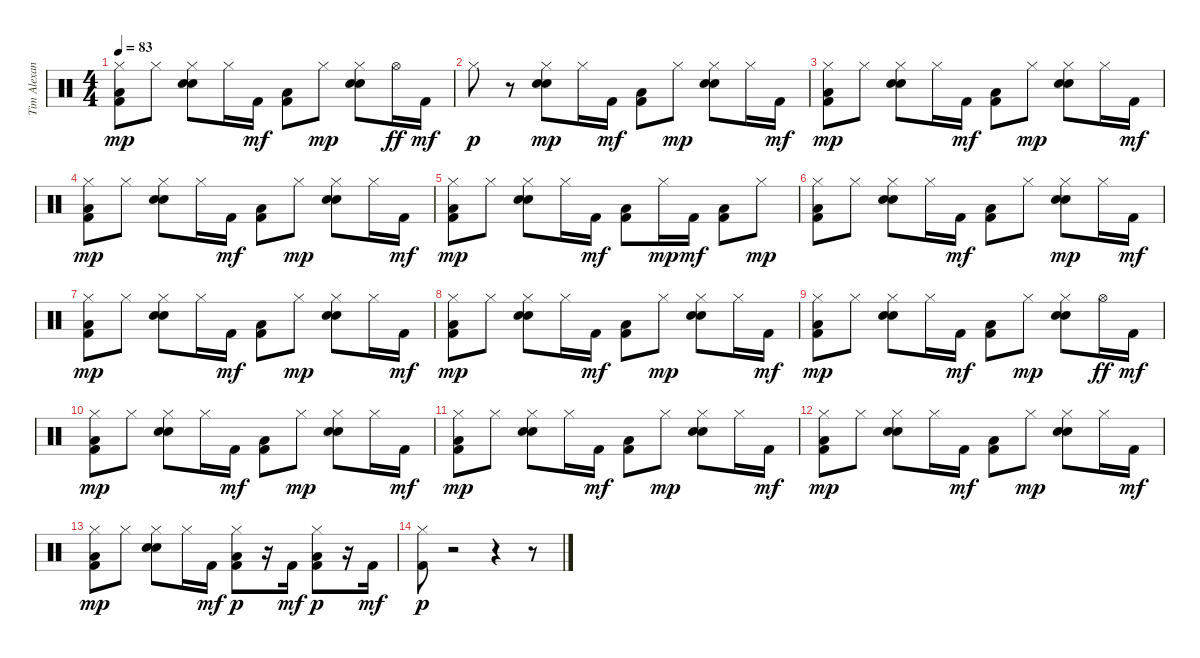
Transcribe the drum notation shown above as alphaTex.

\track ("Tim Alexander" "Tim Alexan") {instrument percussion}
\staff {score}
\articulation defaults
\ts (4 4)
\tempo 83
\clef neutral
\ks c
("Kick (hit) 2" "Low Floor Tom (hit)" "Hi-Hat (closed)").8{dy mp} "Hi-Hat (closed)".8 ("Hand Clap (hit)" "Electric Snare (hit)" "Hi-Hat (closed)").8 "Hi-Hat (closed)".16 "Kick (hit) 2".16{dy mf} ("Kick (hit) 2" "Low Floor Tom (hit)").8 "Hi-Hat (closed)".8{dy mp} ("Hand Clap (hit)" "Electric Snare (hit)" "Hi-Hat (closed)").8 "Hi-Hat (open)".16{dy ff} "Kick (hit) 2".16{dy mf} |
"Hi-Hat (closed)".8{dy p} r.8 ("Hand Clap (hit)" "Electric Snare (hit)" "Hi-Hat (closed)").8{dy mp} "Hi-Hat (closed)".16 "Kick (hit) 2".16{dy mf} ("Kick (hit) 2" "Low Floor Tom (hit)").8 "Hi-Hat (closed)".8{dy mp} ("Hand Clap (hit)" "Electric Snare (hit)" "Hi-Hat (closed)").8 "Hi-Hat (closed)".16 "Kick (hit) 2".16{dy mf} |
("Kick (hit) 2" "Low Floor Tom (hit)" "Hi-Hat (closed)").8{dy mp} "Hi-Hat (closed)".8 ("Hand Clap (hit)" "Electric Snare (hit)" "Hi-Hat (closed)").8 "Hi-Hat (closed)".16 "Kick (hit) 2".16{dy mf} ("Kick (hit) 2" "Low Floor Tom (hit)").8 "Hi-Hat (closed)".8{dy mp} ("Hand Clap (hit)" "Electric Snare (hit)" "Hi-Hat (closed)").8 "Hi-Hat (closed)".16 "Kick (hit) 2".16{dy mf} |
("Kick (hit) 2" "Low Floor Tom (hit)" "Hi-Hat (closed)").8{dy mp} "Hi-Hat (closed)".8 ("Hand Clap (hit)" "Electric Snare (hit)" "Hi-Hat (closed)").8 "Hi-Hat (closed)".16 "Kick (hit) 2".16{dy mf} ("Kick (hit) 2" "Low Floor Tom (hit)").8 "Hi-Hat (closed)".8{dy mp} ("Hand Clap (hit)" "Electric Snare (hit)" "Hi-Hat (closed)").8 "Hi-Hat (closed)".16 "Kick (hit) 2".16{dy mf} |
("Kick (hit) 2" "Low Floor Tom (hit)" "Hi-Hat (closed)").8{dy mp} "Hi-Hat (closed)".8 ("Hand Clap (hit)" "Electric Snare (hit)" "Hi-Hat (closed)").8 "Hi-Hat (closed)".16 "Kick (hit) 2".16{dy mf} ("Kick (hit) 2" "Low Floor Tom (hit)").8 "Hi-Hat (closed)".16{dy mp} "Kick (hit) 2".16{dy mf} ("Kick (hit) 2" "Low Floor Tom (hit)").8 "Hi-Hat (closed)".8{dy mp} |
("Kick (hit) 2" "Low Floor Tom (hit)" "Hi-Hat (closed)").8 "Hi-Hat (closed)".8 ("Hand Clap (hit)" "Electric Snare (hit)" "Hi-Hat (closed)").8 "Hi-Hat (closed)".16 "Kick (hit) 2".16{dy mf} ("Kick (hit) 2" "Low Floor Tom (hit)").8 "Hi-Hat (closed)".8 ("Hand Clap (hit)" "Electric Snare (hit)" "Hi-Hat (closed)").8{dy mp} "Hi-Hat (closed)".16 "Kick (hit) 2".16{dy mf} |
("Kick (hit) 2" "Low Floor Tom (hit)" "Hi-Hat (closed)").8{dy mp} "Hi-Hat (closed)".8 ("Hand Clap (hit)" "Electric Snare (hit)" "Hi-Hat (closed)").8 "Hi-Hat (closed)".16 "Kick (hit) 2".16{dy mf} ("Kick (hit) 2" "Low Floor Tom (hit)").8 "Hi-Hat (closed)".8{dy mp} ("Hand Clap (hit)" "Electric Snare (hit)" "Hi-Hat (closed)").8 "Hi-Hat (closed)".16 "Kick (hit) 2".16{dy mf} |
("Kick (hit) 2" "Low Floor Tom (hit)" "Hi-Hat (closed)").8{dy mp} "Hi-Hat (closed)".8 ("Hand Clap (hit)" "Electric Snare (hit)" "Hi-Hat (closed)").8 "Hi-Hat (closed)".16 "Kick (hit) 2".16{dy mf} ("Kick (hit) 2" "Low Floor Tom (hit)").8 "Hi-Hat (closed)".8{dy mp} ("Hand Clap (hit)" "Electric Snare (hit)" "Hi-Hat (closed)").8 "Hi-Hat (closed)".16 "Kick (hit) 2".16{dy mf} |
("Kick (hit) 2" "Low Floor Tom (hit)" "Hi-Hat (closed)").8{dy mp} "Hi-Hat (closed)".8 ("Hand Clap (hit)" "Electric Snare (hit)" "Hi-Hat (closed)").8 "Hi-Hat (closed)".16 "Kick (hit) 2".16{dy mf} ("Kick (hit) 2" "Low Floor Tom (hit)").8 "Hi-Hat (closed)".8{dy mp} ("Hand Clap (hit)" "Electric Snare (hit)" "Hi-Hat (closed)").8 "Hi-Hat (open)".16{dy ff} "Kick (hit) 2".16{dy mf} |
("Kick (hit) 2" "Low Floor Tom (hit)" "Hi-Hat (closed)").8{dy mp} "Hi-Hat (closed)".8 ("Hand Clap (hit)" "Electric Snare (hit)" "Hi-Hat (closed)").8 "Hi-Hat (closed)".16 "Kick (hit) 2".16{dy mf} ("Kick (hit) 2" "Low Floor Tom (hit)").8 "Hi-Hat (closed)".8{dy mp} ("Hand Clap (hit)" "Electric Snare (hit)" "Hi-Hat (closed)").8 "Hi-Hat (closed)".16 "Kick (hit) 2".16{dy mf} |
("Kick (hit) 2" "Low Floor Tom (hit)" "Hi-Hat (closed)").8{dy mp} "Hi-Hat (closed)".8 ("Hand Clap (hit)" "Electric Snare (hit)" "Hi-Hat (closed)").8 "Hi-Hat (closed)".16 "Kick (hit) 2".16{dy mf} ("Kick (hit) 2" "Low Floor Tom (hit)").8 "Hi-Hat (closed)".8{dy mp} ("Hand Clap (hit)" "Electric Snare (hit)" "Hi-Hat (closed)").8 "Hi-Hat (closed)".16 "Kick (hit) 2".16{dy mf} |
("Kick (hit) 2" "Low Floor Tom (hit)" "Hi-Hat (closed)").8{dy mp} "Hi-Hat (closed)".8 ("Hand Clap (hit)" "Electric Snare (hit)" "Hi-Hat (closed)").8 "Hi-Hat (closed)".16 "Kick (hit) 2".16{dy mf} ("Kick (hit) 2" "Low Floor Tom (hit)").8 "Hi-Hat (closed)".8{dy mp} ("Hand Clap (hit)" "Electric Snare (hit)" "Hi-Hat (closed)").8 "Hi-Hat (closed)".16 "Kick (hit) 2".16{dy mf} |
("Kick (hit) 2" "Low Floor Tom (hit)" "Hi-Hat (closed)").8{dy mp} "Hi-Hat (closed)".8 ("Hand Clap (hit)" "Electric Snare (hit)" "Hi-Hat (closed)").8 "Hi-Hat (closed)".16 "Kick (hit) 2".16{dy mf} ("Kick (hit) 2" "Low Floor Tom (hit)" "Hi-Hat (closed)").8{dy p} r.16 "Kick (hit) 2".16{dy mf} ("Kick (hit) 2" "Low Floor Tom (hit)" "Hi-Hat (closed)").8{dy p} r.16 "Kick (hit) 2".16{dy mf} |
("Kick (hit) 2" "Hi-Hat (closed)").8{dy p} r.2 r.4 r.8
